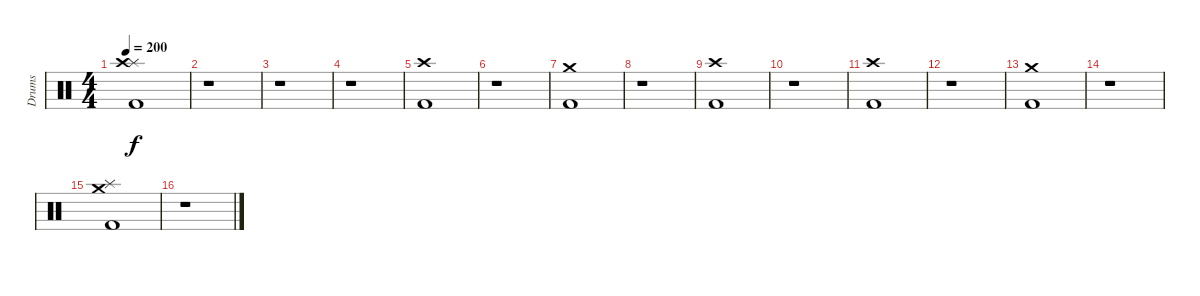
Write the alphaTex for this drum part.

\track ("Drums" "Drums") {instrument percussion}
\staff {score}
\articulation defaults
\ts (4 4)
\tempo 200
\tempo 234
\tempo 200
\clef neutral
\ks c
("Kick (hit) 2" "Splash (hit)" "Crash high (hit)").1{dy f} |
r.1 |
r.1 |
r.1 |
("Kick (hit) 2" "Crash high (hit)").1 |
r.1 |
("Kick (hit) 2" "Crash medium (hit)").1 |
r.1 |
("Kick (hit) 2" "Crash high (hit)").1 |
r.1 |
("Kick (hit) 2" "Crash high (hit)").1 |
r.1 |
("Kick (hit) 2" "Crash medium (hit)").1 |
r.1 |
("Kick (hit) 2" "Splash (hit)" "Crash medium (hit)").1 |
r.1
